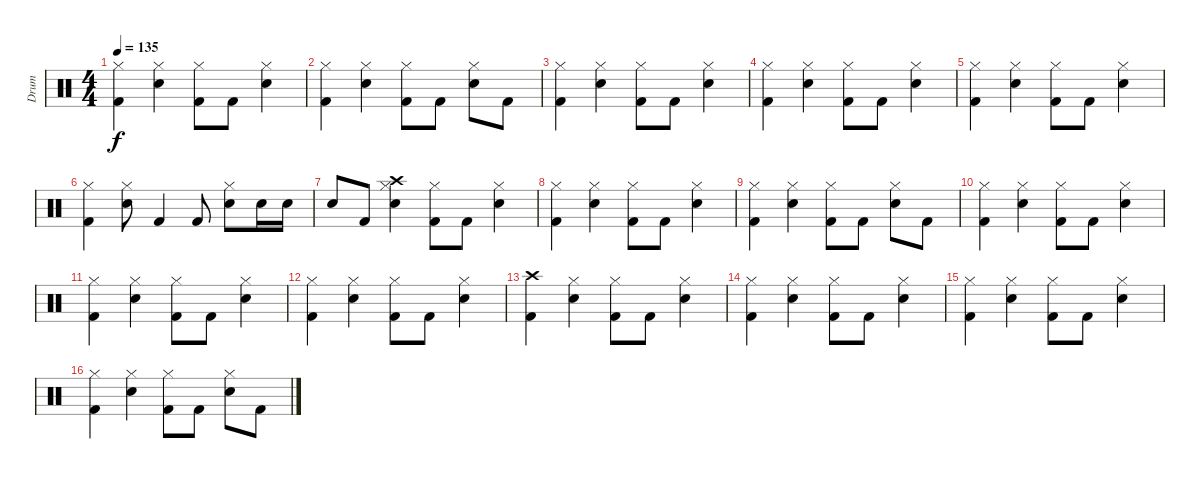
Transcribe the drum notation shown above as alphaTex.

\track ("Drum" "Drum") {instrument percussion}
\staff {score}
\articulation defaults
\ts (4 4)
\tempo 135
\clef neutral
\ks c
("Kick (hit) 2" "Hi-Hat (closed)").4{dy f} ("Snare (hit) 2" "Hi-Hat (closed)").4 ("Kick (hit) 2" "Hi-Hat (closed)").8 "Kick (hit) 2".8 ("Snare (hit) 2" "Hi-Hat (closed)").4 |
("Kick (hit) 2" "Hi-Hat (closed)").4 ("Snare (hit) 2" "Hi-Hat (closed)").4 ("Kick (hit) 2" "Hi-Hat (closed)").8 "Kick (hit) 2".8 ("Snare (hit) 2" "Hi-Hat (closed)").8 "Kick (hit) 2".8 |
("Kick (hit) 2" "Hi-Hat (closed)").4 ("Snare (hit) 2" "Hi-Hat (closed)").4 ("Kick (hit) 2" "Hi-Hat (closed)").8 "Kick (hit) 2".8 ("Snare (hit) 2" "Hi-Hat (closed)").4 |
("Kick (hit) 2" "Hi-Hat (closed)").4 ("Snare (hit) 2" "Hi-Hat (closed)").4 ("Kick (hit) 2" "Hi-Hat (closed)").8 "Kick (hit) 2".8 ("Snare (hit) 2" "Hi-Hat (closed)").4 |
("Kick (hit) 2" "Hi-Hat (closed)").4 ("Snare (hit) 2" "Hi-Hat (closed)").4 ("Kick (hit) 2" "Hi-Hat (closed)").8 "Kick (hit) 2".8 ("Snare (hit) 2" "Hi-Hat (closed)").4 |
("Kick (hit) 2" "Hi-Hat (closed)").4 ("Snare (hit) 2" "Hi-Hat (closed)").8 "Kick (hit) 2".4 "Kick (hit) 2".8 ("Snare (hit) 2" "Hi-Hat (closed)").8 "Snare (hit) 2".16 "Snare (hit) 2".16 |
"Snare (hit) 2".8 "Kick (hit) 2".8 ("Snare (hit) 2" "Hi-Hat (closed)" "Crash high (hit)").4 ("Kick (hit) 2" "Hi-Hat (closed)").8 "Kick (hit) 2".8 ("Snare (hit) 2" "Hi-Hat (closed)").4 |
("Kick (hit) 2" "Hi-Hat (closed)").4 ("Snare (hit) 2" "Hi-Hat (closed)").4 ("Kick (hit) 2" "Hi-Hat (closed)").8 "Kick (hit) 2".8 ("Snare (hit) 2" "Hi-Hat (closed)").4 |
("Kick (hit) 2" "Hi-Hat (closed)").4 ("Snare (hit) 2" "Hi-Hat (closed)").4 ("Kick (hit) 2" "Hi-Hat (closed)").8 "Kick (hit) 2".8 ("Snare (hit) 2" "Hi-Hat (closed)").8 "Kick (hit) 2".8 |
("Kick (hit) 2" "Hi-Hat (closed)").4 ("Snare (hit) 2" "Hi-Hat (closed)").4 ("Kick (hit) 2" "Hi-Hat (closed)").8 "Kick (hit) 2".8 ("Snare (hit) 2" "Hi-Hat (closed)").4 |
("Kick (hit) 2" "Hi-Hat (closed)").4 ("Snare (hit) 2" "Hi-Hat (closed)").4 ("Kick (hit) 2" "Hi-Hat (closed)").8 "Kick (hit) 2".8 ("Snare (hit) 2" "Hi-Hat (closed)").4 |
("Kick (hit) 2" "Hi-Hat (closed)").4 ("Snare (hit) 2" "Hi-Hat (closed)").4 ("Kick (hit) 2" "Hi-Hat (closed)").8 "Kick (hit) 2".8 ("Snare (hit) 2" "Hi-Hat (closed)").4 |
("Kick (hit) 2" "Crash high (hit)").4 ("Snare (hit) 2" "Hi-Hat (closed)").4 ("Kick (hit) 2" "Hi-Hat (closed)").8 "Kick (hit) 2".8 ("Snare (hit) 2" "Hi-Hat (closed)").4 |
("Kick (hit) 2" "Hi-Hat (closed)").4 ("Snare (hit) 2" "Hi-Hat (closed)").4 ("Kick (hit) 2" "Hi-Hat (closed)").8 "Kick (hit) 2".8 ("Snare (hit) 2" "Hi-Hat (closed)").4 |
("Kick (hit) 2" "Hi-Hat (closed)").4 ("Snare (hit) 2" "Hi-Hat (closed)").4 ("Kick (hit) 2" "Hi-Hat (closed)").8 "Kick (hit) 2".8 ("Snare (hit) 2" "Hi-Hat (closed)").4 |
("Kick (hit) 2" "Hi-Hat (closed)").4 ("Snare (hit) 2" "Hi-Hat (closed)").4 ("Kick (hit) 2" "Hi-Hat (closed)").8 "Kick (hit) 2".8 ("Snare (hit) 2" "Hi-Hat (closed)").8 "Kick (hit) 2".8
